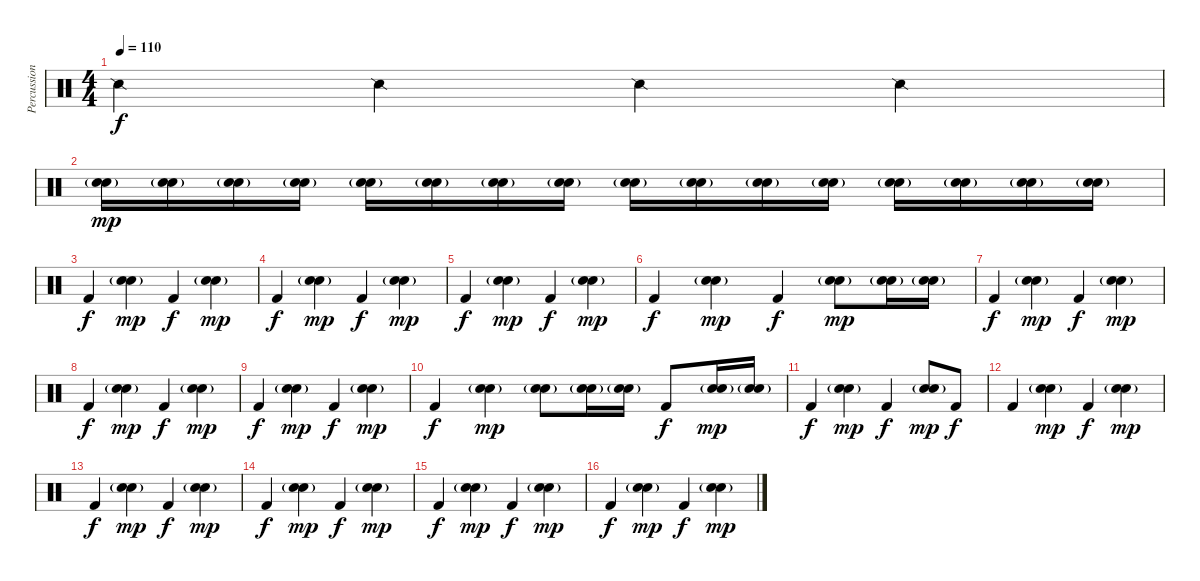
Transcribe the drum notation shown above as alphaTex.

\track ("Percussion" "Percussion") {instrument percussion}
\staff {score}
\articulation defaults
\ts (4 4)
\tempo 110
\clef neutral
\ks c "Snare (side stick) 2".4{dy f} "Snare (side stick) 2".4 "Snare (side stick) 2".4 "Snare (side stick) 2".4
|
("Snare (hit) 2"{g} "Electric Snare (hit)").16{dy mp} ("Snare (hit) 2"{g} "Electric Snare (hit)"{g}).16 ("Snare (hit) 2"{g} "Electric Snare (hit)").16 ("Snare (hit) 2"{g} "Electric Snare (hit)"{g}).16 ("Snare (hit) 2"{g} "Electric Snare (hit)").16 ("Snare (hit) 2"{g} "Electric Snare (hit)"{g}).16 ("Snare (hit) 2"{g} "Electric Snare (hit)").16 ("Snare (hit) 2"{g} "Electric Snare (hit)"{g}).16 ("Snare (hit) 2"{g} "Electric Snare (hit)").16 ("Snare (hit) 2"{g} "Electric Snare (hit)"{g}).16 ("Snare (hit) 2"{g} "Electric Snare (hit)").16 ("Snare (hit) 2"{g} "Electric Snare (hit)"{g}).16 ("Snare (hit) 2"{g} "Electric Snare (hit)").16 ("Snare (hit) 2"{g} "Electric Snare (hit)"{g}).16 ("Snare (hit) 2"{g} "Electric Snare (hit)").16 ("Snare (hit) 2"{g} "Electric Snare (hit)"{g}).16 |
"Kick (hit) 2".4{dy f} ("Electric Snare (hit)" "Snare (hit) 2"{g}).4{dy mp} "Kick (hit) 2".4{dy f} ("Electric Snare (hit)" "Snare (hit) 2"{g}).4{dy mp} |
"Kick (hit) 2".4{dy f} ("Electric Snare (hit)" "Snare (hit) 2"{g}).4{dy mp} "Kick (hit) 2".4{dy f} ("Electric Snare (hit)" "Snare (hit) 2"{g}).4{dy mp} |
"Kick (hit) 2".4{dy f} ("Electric Snare (hit)" "Snare (hit) 2"{g}).4{dy mp} "Kick (hit) 2".4{dy f} ("Electric Snare (hit)" "Snare (hit) 2"{g}).4{dy mp} |
"Kick (hit) 2".4{dy f} ("Electric Snare (hit)" "Snare (hit) 2"{g}).4{dy mp} "Kick (hit) 2".4{dy f} ("Electric Snare (hit)" "Snare (hit) 2"{g}).8{dy mp} ("Electric Snare (hit)"{g} "Snare (hit) 2"{g}).16 ("Electric Snare (hit)" "Snare (hit) 2"{g}).16 |
"Kick (hit) 2".4{dy f} ("Electric Snare (hit)" "Snare (hit) 2"{g}).4{dy mp} "Kick (hit) 2".4{dy f} ("Electric Snare (hit)" "Snare (hit) 2"{g}).4{dy mp} |
"Kick (hit) 2".4{dy f} ("Electric Snare (hit)" "Snare (hit) 2"{g}).4{dy mp} "Kick (hit) 2".4{dy f} ("Electric Snare (hit)" "Snare (hit) 2"{g}).4{dy mp} |
"Kick (hit) 2".4{dy f} ("Electric Snare (hit)" "Snare (hit) 2"{g}).4{dy mp} "Kick (hit) 2".4{dy f} ("Electric Snare (hit)" "Snare (hit) 2"{g}).4{dy mp} |
"Kick (hit) 2".4{dy f} ("Electric Snare (hit)" "Snare (hit) 2"{g}).4{dy mp} ("Electric Snare (hit)" "Snare (hit) 2"{g}).8 ("Electric Snare (hit)"{g} "Snare (hit) 2"{g}).16 ("Electric Snare (hit)" "Snare (hit) 2"{g}).16 "Kick (hit) 2".8{dy f} ("Electric Snare (hit)" "Snare (hit) 2"{g}).16{dy mp} ("Electric Snare (hit)"{g} "Snare (hit) 2"{g}).16 |
"Kick (hit) 2".4{dy f} ("Electric Snare (hit)" "Snare (hit) 2"{g}).4{dy mp} "Kick (hit) 2".4{dy f} ("Electric Snare (hit)" "Snare (hit) 2"{g}).8{dy mp} "Kick (hit) 2".8{dy f} |
"Kick (hit) 2".4 ("Electric Snare (hit)" "Snare (hit) 2"{g}).4{dy mp} "Kick (hit) 2".4{dy f} ("Electric Snare (hit)" "Snare (hit) 2"{g}).4{dy mp} |
"Kick (hit) 2".4{dy f} ("Electric Snare (hit)" "Snare (hit) 2"{g}).4{dy mp} "Kick (hit) 2".4{dy f} ("Electric Snare (hit)" "Snare (hit) 2"{g}).4{dy mp} |
"Kick (hit) 2".4{dy f} ("Electric Snare (hit)" "Snare (hit) 2"{g}).4{dy mp} "Kick (hit) 2".4{dy f} ("Electric Snare (hit)" "Snare (hit) 2"{g}).4{dy mp} |
"Kick (hit) 2".4{dy f} ("Electric Snare (hit)" "Snare (hit) 2"{g}).4{dy mp} "Kick (hit) 2".4{dy f} ("Electric Snare (hit)" "Snare (hit) 2"{g}).4{dy mp} |
"Kick (hit) 2".4{dy f} ("Electric Snare (hit)" "Snare (hit) 2"{g}).4{dy mp} "Kick (hit) 2".4{dy f} ("Electric Snare (hit)" "Snare (hit) 2"{g}).4{dy mp}
